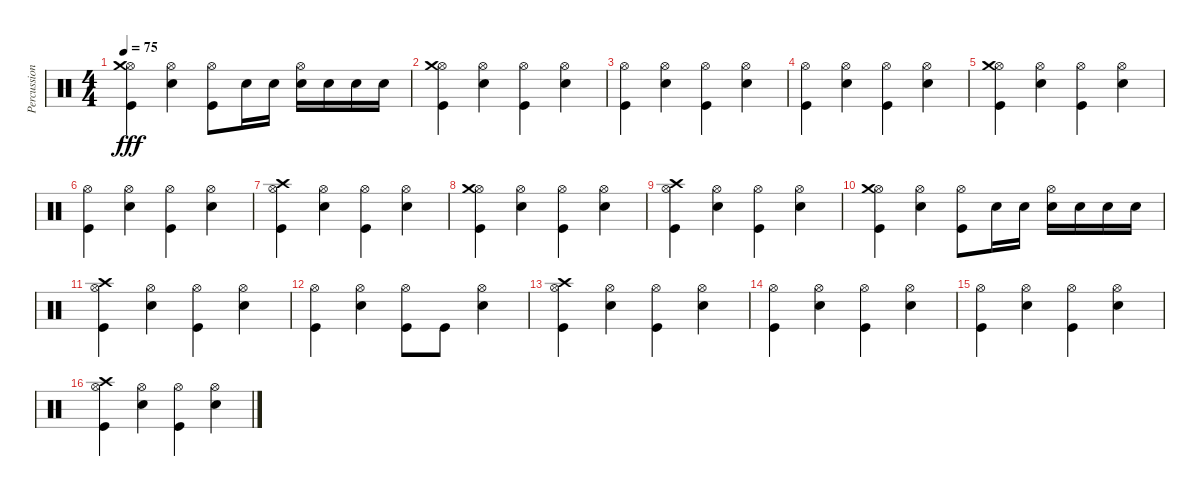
\track ("Percussion" "Percussion") {instrument percussion}
\staff {score}
\articulation defaults
\ts (4 4)
\tempo 75
\clef neutral
\ks c
("Hi-Hat (open)" "Crash medium (hit)" "Kick (hit)").4{dy fff} ("Hi-Hat (open)" "Snare (hit) 2").4 ("Hi-Hat (open)" "Kick (hit)").8 "Snare (hit) 2".16 "Snare (hit) 2".16 ("Hi-Hat (open)" "Snare (hit) 2").16 "Snare (hit) 2".16 "Snare (hit) 2".16 "Snare (hit) 2".16 |
("Hi-Hat (open)" "Crash medium (hit)" "Kick (hit)").4 ("Hi-Hat (open)" "Snare (hit) 2").4 ("Hi-Hat (open)" "Kick (hit)").4 ("Hi-Hat (open)" "Snare (hit) 2").4 |
("Hi-Hat (open)" "Kick (hit)").4 ("Hi-Hat (open)" "Snare (hit) 2").4 ("Hi-Hat (open)" "Kick (hit)").4 ("Hi-Hat (open)" "Snare (hit) 2").4 |
("Hi-Hat (open)" "Kick (hit)").4 ("Hi-Hat (open)" "Snare (hit) 2").4 ("Hi-Hat (open)" "Kick (hit)").4 ("Hi-Hat (open)" "Snare (hit) 2").4 |
("Hi-Hat (open)" "Crash medium (hit)" "Kick (hit)").4 ("Hi-Hat (open)" "Snare (hit) 2").4 ("Hi-Hat (open)" "Kick (hit)").4 ("Hi-Hat (open)" "Snare (hit) 2").4 |
("Hi-Hat (open)" "Kick (hit)").4 ("Hi-Hat (open)" "Snare (hit) 2").4 ("Hi-Hat (open)" "Kick (hit)").4 ("Hi-Hat (open)" "Snare (hit) 2").4 |
("Hi-Hat (open)" "Crash high (hit)" "Kick (hit)").4 ("Hi-Hat (open)" "Snare (hit) 2").4 ("Hi-Hat (open)" "Kick (hit)").4 ("Hi-Hat (open)" "Snare (hit) 2").4 |
("Hi-Hat (open)" "Crash medium (hit)" "Kick (hit)").4 ("Hi-Hat (open)" "Snare (hit) 2").4 ("Hi-Hat (open)" "Kick (hit)").4 ("Hi-Hat (open)" "Snare (hit) 2").4 |
("Hi-Hat (open)" "Crash high (hit)" "Kick (hit)").4 ("Hi-Hat (open)" "Snare (hit) 2").4 ("Hi-Hat (open)" "Kick (hit)").4 ("Hi-Hat (open)" "Snare (hit) 2").4 |
("Hi-Hat (open)" "Crash medium (hit)" "Kick (hit)").4 ("Hi-Hat (open)" "Snare (hit) 2").4 ("Hi-Hat (open)" "Kick (hit)").8 "Snare (hit) 2".16 "Snare (hit) 2".16 ("Hi-Hat (open)" "Snare (hit) 2").16 "Snare (hit) 2".16 "Snare (hit) 2".16 "Snare (hit) 2".16 |
("Hi-Hat (open)" "Crash high (hit)" "Kick (hit)").4 ("Hi-Hat (open)" "Snare (hit) 2").4 ("Hi-Hat (open)" "Kick (hit)").4 ("Hi-Hat (open)" "Snare (hit) 2").4 |
("Hi-Hat (open)" "Kick (hit)").4 ("Hi-Hat (open)" "Snare (hit) 2").4 ("Hi-Hat (open)" "Kick (hit)").8 "Kick (hit)".8 ("Hi-Hat (open)" "Snare (hit) 2").4 |
("Hi-Hat (open)" "Crash high (hit)" "Kick (hit)").4 ("Hi-Hat (open)" "Snare (hit) 2").4 ("Hi-Hat (open)" "Kick (hit)").4 ("Hi-Hat (open)" "Snare (hit) 2").4 |
("Hi-Hat (open)" "Kick (hit)").4 ("Hi-Hat (open)" "Snare (hit) 2").4 ("Hi-Hat (open)" "Kick (hit)").4 ("Hi-Hat (open)" "Snare (hit) 2").4 |
("Hi-Hat (open)" "Kick (hit)").4 ("Hi-Hat (open)" "Snare (hit) 2").4 ("Hi-Hat (open)" "Kick (hit)").4 ("Hi-Hat (open)" "Snare (hit) 2").4 |
("Hi-Hat (open)" "Crash high (hit)" "Kick (hit)").4 ("Hi-Hat (open)" "Snare (hit) 2").4 ("Hi-Hat (open)" "Kick (hit)").4 ("Hi-Hat (open)" "Snare (hit) 2").4
